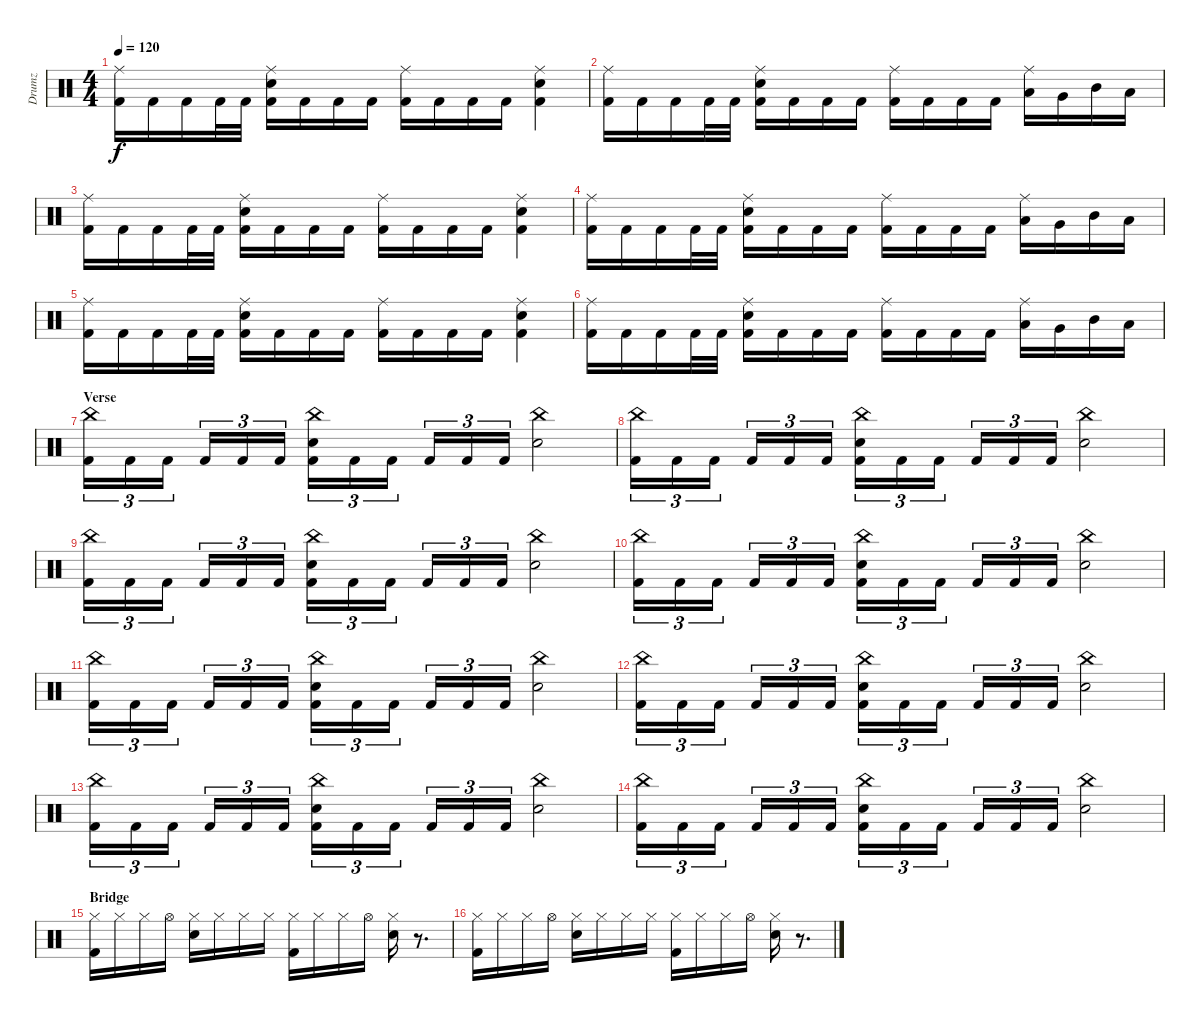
\track ("Drumz" "Drumz") {instrument percussion}
\staff {score}
\articulation defaults
\ts (4 4)
\tempo 120
\clef neutral
\ks c
("Ride (middle)" "Kick (hit) 2").16{dy f} "Kick (hit) 2".16 "Kick (hit) 2".16 "Kick (hit) 2".32 "Kick (hit) 2".32 ("Ride (middle)" "Electric Snare (hit)" "Kick (hit) 2").16 "Kick (hit) 2".16 "Kick (hit) 2".16 "Kick (hit) 2".16 ("Ride (middle)" "Kick (hit) 2").16 "Kick (hit) 2".16 "Kick (hit) 2".16 "Kick (hit) 2".16 ("Ride (middle)" "Electric Snare (hit)" "Kick (hit) 2").4 |
("Ride (middle)" "Kick (hit) 2").16 "Kick (hit) 2".16 "Kick (hit) 2".16 "Kick (hit) 2".32 "Kick (hit) 2".32 ("Ride (middle)" "Electric Snare (hit)" "Kick (hit) 2").16 "Kick (hit) 2".16 "Kick (hit) 2".16 "Kick (hit) 2".16 ("Ride (middle)" "Kick (hit) 2").16 "Kick (hit) 2".16 "Kick (hit) 2".16 "Kick (hit) 2".16 ("Ride (middle)" "Low Tom (hit)").16 "Very Low Tom (hit)".16 "Mid Tom (hit)".16 "Low Floor Tom (hit)".16 |
("Ride (middle)" "Kick (hit) 2").16 "Kick (hit) 2".16 "Kick (hit) 2".16 "Kick (hit) 2".32 "Kick (hit) 2".32 ("Ride (middle)" "Electric Snare (hit)" "Kick (hit) 2").16 "Kick (hit) 2".16 "Kick (hit) 2".16 "Kick (hit) 2".16 ("Ride (middle)" "Kick (hit) 2").16 "Kick (hit) 2".16 "Kick (hit) 2".16 "Kick (hit) 2".16 ("Ride (middle)" "Electric Snare (hit)" "Kick (hit) 2").4 |
("Ride (middle)" "Kick (hit) 2").16 "Kick (hit) 2".16 "Kick (hit) 2".16 "Kick (hit) 2".32 "Kick (hit) 2".32 ("Ride (middle)" "Electric Snare (hit)" "Kick (hit) 2").16 "Kick (hit) 2".16 "Kick (hit) 2".16 "Kick (hit) 2".16 ("Ride (middle)" "Kick (hit) 2").16 "Kick (hit) 2".16 "Kick (hit) 2".16 "Kick (hit) 2".16 ("Ride (middle)" "Low Tom (hit)").16 "Very Low Tom (hit)".16 "Mid Tom (hit)".16 "Low Floor Tom (hit)".16 |
("Ride (middle)" "Kick (hit) 2").16 "Kick (hit) 2".16 "Kick (hit) 2".16 "Kick (hit) 2".32 "Kick (hit) 2".32 ("Ride (middle)" "Electric Snare (hit)" "Kick (hit) 2").16 "Kick (hit) 2".16 "Kick (hit) 2".16 "Kick (hit) 2".16 ("Ride (middle)" "Kick (hit) 2").16 "Kick (hit) 2".16 "Kick (hit) 2".16 "Kick (hit) 2".16 ("Ride (middle)" "Electric Snare (hit)" "Kick (hit) 2").4 |
("Ride (middle)" "Kick (hit) 2").16 "Kick (hit) 2".16 "Kick (hit) 2".16 "Kick (hit) 2".32 "Kick (hit) 2".32 ("Ride (middle)" "Electric Snare (hit)" "Kick (hit) 2").16 "Kick (hit) 2".16 "Kick (hit) 2".16 "Kick (hit) 2".16 ("Ride (middle)" "Kick (hit) 2").16 "Kick (hit) 2".16 "Kick (hit) 2".16 "Kick (hit) 2".16 ("Ride (middle)" "Low Tom (hit)").16 "Very Low Tom (hit)".16 "Mid Tom (hit)".16 "Low Floor Tom (hit)".16 |
\section ("" "Verse")
("China (hit)" "Kick (hit) 2").16{tu (3 2)} "Kick (hit) 2".16{tu (3 2)} "Kick (hit) 2".16{tu (3 2)} "Kick (hit) 2".16{tu (3 2)} "Kick (hit) 2".16{tu (3 2)} "Kick (hit) 2".16{tu (3 2)} ("China (hit)" "Electric Snare (hit)" "Kick (hit) 2").16{tu (3 2)} "Kick (hit) 2".16{tu (3 2)} "Kick (hit) 2".16{tu (3 2)} "Kick (hit) 2".16{tu (3 2)} "Kick (hit) 2".16{tu (3 2)} "Kick (hit) 2".16{tu (3 2)} ("China (hit)" "Electric Snare (hit)").2 |
("China (hit)" "Kick (hit) 2").16{tu (3 2)} "Kick (hit) 2".16{tu (3 2)} "Kick (hit) 2".16{tu (3 2)} "Kick (hit) 2".16{tu (3 2)} "Kick (hit) 2".16{tu (3 2)} "Kick (hit) 2".16{tu (3 2)} ("China (hit)" "Electric Snare (hit)" "Kick (hit) 2").16{tu (3 2)} "Kick (hit) 2".16{tu (3 2)} "Kick (hit) 2".16{tu (3 2)} "Kick (hit) 2".16{tu (3 2)} "Kick (hit) 2".16{tu (3 2)} "Kick (hit) 2".16{tu (3 2)} ("China (hit)" "Electric Snare (hit)").2 |
("China (hit)" "Kick (hit) 2").16{tu (3 2)} "Kick (hit) 2".16{tu (3 2)} "Kick (hit) 2".16{tu (3 2)} "Kick (hit) 2".16{tu (3 2)} "Kick (hit) 2".16{tu (3 2)} "Kick (hit) 2".16{tu (3 2)} ("China (hit)" "Electric Snare (hit)" "Kick (hit) 2").16{tu (3 2)} "Kick (hit) 2".16{tu (3 2)} "Kick (hit) 2".16{tu (3 2)} "Kick (hit) 2".16{tu (3 2)} "Kick (hit) 2".16{tu (3 2)} "Kick (hit) 2".16{tu (3 2)} ("China (hit)" "Electric Snare (hit)").2 |
("China (hit)" "Kick (hit) 2").16{tu (3 2)} "Kick (hit) 2".16{tu (3 2)} "Kick (hit) 2".16{tu (3 2)} "Kick (hit) 2".16{tu (3 2)} "Kick (hit) 2".16{tu (3 2)} "Kick (hit) 2".16{tu (3 2)} ("China (hit)" "Electric Snare (hit)" "Kick (hit) 2").16{tu (3 2)} "Kick (hit) 2".16{tu (3 2)} "Kick (hit) 2".16{tu (3 2)} "Kick (hit) 2".16{tu (3 2)} "Kick (hit) 2".16{tu (3 2)} "Kick (hit) 2".16{tu (3 2)} ("China (hit)" "Electric Snare (hit)").2 |
("China (hit)" "Kick (hit) 2").16{tu (3 2)} "Kick (hit) 2".16{tu (3 2)} "Kick (hit) 2".16{tu (3 2)} "Kick (hit) 2".16{tu (3 2)} "Kick (hit) 2".16{tu (3 2)} "Kick (hit) 2".16{tu (3 2)} ("China (hit)" "Electric Snare (hit)" "Kick (hit) 2").16{tu (3 2)} "Kick (hit) 2".16{tu (3 2)} "Kick (hit) 2".16{tu (3 2)} "Kick (hit) 2".16{tu (3 2)} "Kick (hit) 2".16{tu (3 2)} "Kick (hit) 2".16{tu (3 2)} ("China (hit)" "Electric Snare (hit)").2 |
("China (hit)" "Kick (hit) 2").16{tu (3 2)} "Kick (hit) 2".16{tu (3 2)} "Kick (hit) 2".16{tu (3 2)} "Kick (hit) 2".16{tu (3 2)} "Kick (hit) 2".16{tu (3 2)} "Kick (hit) 2".16{tu (3 2)} ("China (hit)" "Electric Snare (hit)" "Kick (hit) 2").16{tu (3 2)} "Kick (hit) 2".16{tu (3 2)} "Kick (hit) 2".16{tu (3 2)} "Kick (hit) 2".16{tu (3 2)} "Kick (hit) 2".16{tu (3 2)} "Kick (hit) 2".16{tu (3 2)} ("China (hit)" "Electric Snare (hit)").2 |
("China (hit)" "Kick (hit) 2").16{tu (3 2)} "Kick (hit) 2".16{tu (3 2)} "Kick (hit) 2".16{tu (3 2)} "Kick (hit) 2".16{tu (3 2)} "Kick (hit) 2".16{tu (3 2)} "Kick (hit) 2".16{tu (3 2)} ("China (hit)" "Electric Snare (hit)" "Kick (hit) 2").16{tu (3 2)} "Kick (hit) 2".16{tu (3 2)} "Kick (hit) 2".16{tu (3 2)} "Kick (hit) 2".16{tu (3 2)} "Kick (hit) 2".16{tu (3 2)} "Kick (hit) 2".16{tu (3 2)} ("China (hit)" "Electric Snare (hit)").2 |
("China (hit)" "Kick (hit) 2").16{tu (3 2)} "Kick (hit) 2".16{tu (3 2)} "Kick (hit) 2".16{tu (3 2)} "Kick (hit) 2".16{tu (3 2)} "Kick (hit) 2".16{tu (3 2)} "Kick (hit) 2".16{tu (3 2)} ("China (hit)" "Electric Snare (hit)" "Kick (hit) 2").16{tu (3 2)} "Kick (hit) 2".16{tu (3 2)} "Kick (hit) 2".16{tu (3 2)} "Kick (hit) 2".16{tu (3 2)} "Kick (hit) 2".16{tu (3 2)} "Kick (hit) 2".16{tu (3 2)} ("China (hit)" "Electric Snare (hit)").2 |
\section ("" "Bridge")
("Hi-Hat (closed)" "Kick (hit) 2").16 "Hi-Hat (closed)".16 "Hi-Hat (closed)".16 "Hi-Hat (open)".16 ("Hi-Hat (closed)" "Electric Snare (hit)").16 "Hi-Hat (closed)".16 "Hi-Hat (closed)".16 "Hi-Hat (closed)".16 ("Hi-Hat (closed)" "Kick (hit) 2").16 "Hi-Hat (closed)".16 "Hi-Hat (closed)".16 "Hi-Hat (open)".16 ("Hi-Hat (closed)" "Electric Snare (hit)").16 r.8{d} |
("Hi-Hat (closed)" "Kick (hit) 2").16 "Hi-Hat (closed)".16 "Hi-Hat (closed)".16 "Hi-Hat (open)".16 ("Hi-Hat (closed)" "Electric Snare (hit)").16 "Hi-Hat (closed)".16 "Hi-Hat (closed)".16 "Hi-Hat (closed)".16 ("Hi-Hat (closed)" "Kick (hit) 2").16 "Hi-Hat (closed)".16 "Hi-Hat (closed)".16 "Hi-Hat (open)".16 ("Hi-Hat (closed)" "Electric Snare (hit)").16 r.8{d}
